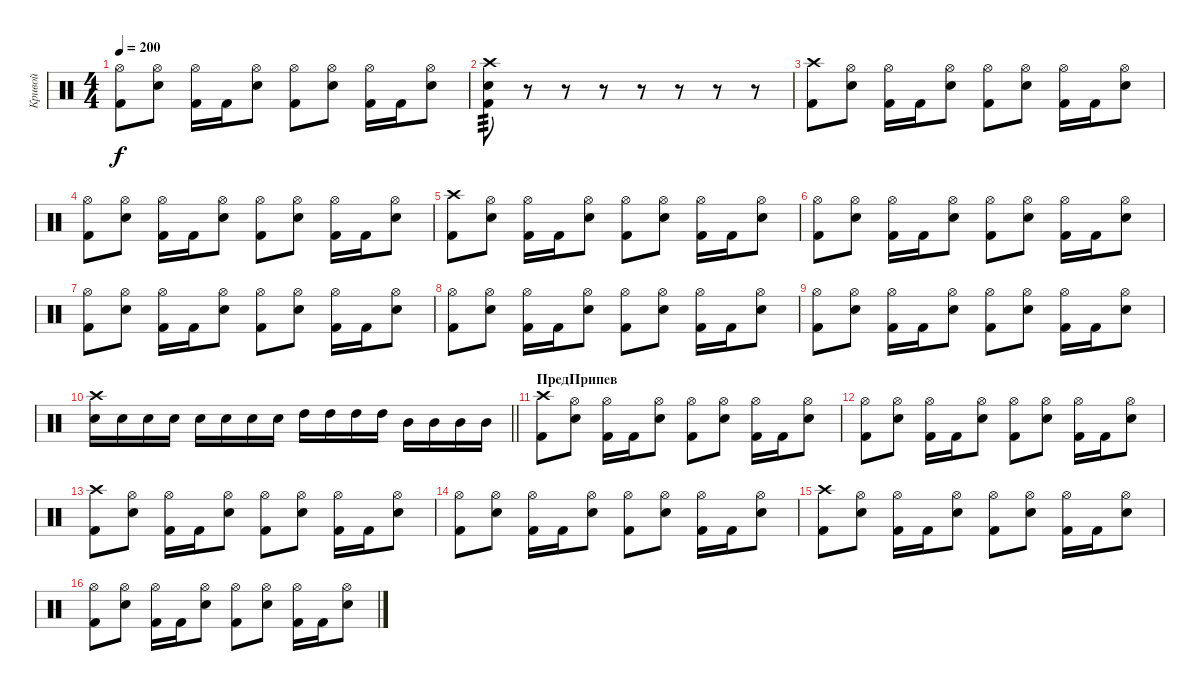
\track ("Кривой" "Кривой") {instrument percussion}
\staff {score}
\articulation defaults
\ts (4 4)
\tempo 200
\clef neutral
\ks c
("Kick (hit) 2" "Hi-Hat (open)").8{dy f} ("Electric Snare (hit)" "Hi-Hat (open)").8 ("Kick (hit) 2" "Hi-Hat (open)").16 "Kick (hit) 2".16 ("Electric Snare (hit)" "Hi-Hat (open)").8 ("Kick (hit) 2" "Hi-Hat (open)").8 ("Electric Snare (hit)" "Hi-Hat (open)").8 ("Kick (hit) 2" "Hi-Hat (open)").16 "Kick (hit) 2".16 ("Electric Snare (hit)" "Hi-Hat (open)").8 |
("Kick (hit) 2" "Electric Snare (hit)" "Crash high (hit)").8{tp 3} r.8 r.8 r.8 r.8 r.8 r.8 r.8 |
("Kick (hit) 2" "Crash high (hit)").8 ("Electric Snare (hit)" "Hi-Hat (open)").8 ("Kick (hit) 2" "Hi-Hat (open)").16 "Kick (hit) 2".16 ("Electric Snare (hit)" "Hi-Hat (open)").8 ("Kick (hit) 2" "Hi-Hat (open)").8 ("Electric Snare (hit)" "Hi-Hat (open)").8 ("Kick (hit) 2" "Hi-Hat (open)").16 "Kick (hit) 2".16 ("Electric Snare (hit)" "Hi-Hat (open)").8 |
("Kick (hit) 2" "Hi-Hat (open)").8 ("Electric Snare (hit)" "Hi-Hat (open)").8 ("Kick (hit) 2" "Hi-Hat (open)").16 "Kick (hit) 2".16 ("Electric Snare (hit)" "Hi-Hat (open)").8 ("Kick (hit) 2" "Hi-Hat (open)").8 ("Electric Snare (hit)" "Hi-Hat (open)").8 ("Kick (hit) 2" "Hi-Hat (open)").16 "Kick (hit) 2".16 ("Electric Snare (hit)" "Hi-Hat (open)").8 |
("Kick (hit) 2" "Crash high (hit)").8 ("Electric Snare (hit)" "Hi-Hat (open)").8 ("Kick (hit) 2" "Hi-Hat (open)").16 "Kick (hit) 2".16 ("Electric Snare (hit)" "Hi-Hat (open)").8 ("Kick (hit) 2" "Hi-Hat (open)").8 ("Electric Snare (hit)" "Hi-Hat (open)").8 ("Kick (hit) 2" "Hi-Hat (open)").16 "Kick (hit) 2".16 ("Electric Snare (hit)" "Hi-Hat (open)").8 |
("Kick (hit) 2" "Hi-Hat (open)").8 ("Electric Snare (hit)" "Hi-Hat (open)").8 ("Kick (hit) 2" "Hi-Hat (open)").16 "Kick (hit) 2".16 ("Electric Snare (hit)" "Hi-Hat (open)").8 ("Kick (hit) 2" "Hi-Hat (open)").8 ("Electric Snare (hit)" "Hi-Hat (open)").8 ("Kick (hit) 2" "Hi-Hat (open)").16 "Kick (hit) 2".16 ("Electric Snare (hit)" "Hi-Hat (open)").8 |
("Kick (hit) 2" "Hi-Hat (open)").8 ("Electric Snare (hit)" "Hi-Hat (open)").8 ("Kick (hit) 2" "Hi-Hat (open)").16 "Kick (hit) 2".16 ("Electric Snare (hit)" "Hi-Hat (open)").8 ("Kick (hit) 2" "Hi-Hat (open)").8 ("Electric Snare (hit)" "Hi-Hat (open)").8 ("Kick (hit) 2" "Hi-Hat (open)").16 "Kick (hit) 2".16 ("Electric Snare (hit)" "Hi-Hat (open)").8 |
("Kick (hit) 2" "Hi-Hat (open)").8 ("Electric Snare (hit)" "Hi-Hat (open)").8 ("Kick (hit) 2" "Hi-Hat (open)").16 "Kick (hit) 2".16 ("Electric Snare (hit)" "Hi-Hat (open)").8 ("Kick (hit) 2" "Hi-Hat (open)").8 ("Electric Snare (hit)" "Hi-Hat (open)").8 ("Kick (hit) 2" "Hi-Hat (open)").16 "Kick (hit) 2".16 ("Electric Snare (hit)" "Hi-Hat (open)").8 |
("Kick (hit) 2" "Hi-Hat (open)").8 ("Electric Snare (hit)" "Hi-Hat (open)").8 ("Kick (hit) 2" "Hi-Hat (open)").16 "Kick (hit) 2".16 ("Electric Snare (hit)" "Hi-Hat (open)").8 ("Kick (hit) 2" "Hi-Hat (open)").8 ("Electric Snare (hit)" "Hi-Hat (open)").8 ("Kick (hit) 2" "Hi-Hat (open)").16 "Kick (hit) 2".16 ("Electric Snare (hit)" "Hi-Hat (open)").8 |
\barLineRight lightlight
("Electric Snare (hit)" "Crash high (hit)").16 "Electric Snare (hit)".16 "Electric Snare (hit)".16 "Electric Snare (hit)".16 "Electric Snare (hit)".16 "Electric Snare (hit)".16 "Electric Snare (hit)".16 "Electric Snare (hit)".16 "High Tom (hit)".16 "High Tom (hit)".16 "High Tom (hit)".16 "High Tom (hit)".16 "Mid Tom (hit)".16 "Mid Tom (hit)".16 "Mid Tom (hit)".16 "Mid Tom (hit)".16 |
\section ("" "ПредПрипев")
("Kick (hit) 2" "Crash high (hit)").8 ("Electric Snare (hit)" "Hi-Hat (open)").8 ("Kick (hit) 2" "Hi-Hat (open)").16 "Kick (hit) 2".16 ("Electric Snare (hit)" "Hi-Hat (open)").8 ("Kick (hit) 2" "Hi-Hat (open)").8 ("Electric Snare (hit)" "Hi-Hat (open)").8 ("Kick (hit) 2" "Hi-Hat (open)").16 "Kick (hit) 2".16 ("Electric Snare (hit)" "Hi-Hat (open)").8 |
("Kick (hit) 2" "Hi-Hat (open)").8 ("Electric Snare (hit)" "Hi-Hat (open)").8 ("Kick (hit) 2" "Hi-Hat (open)").16 "Kick (hit) 2".16 ("Electric Snare (hit)" "Hi-Hat (open)").8 ("Kick (hit) 2" "Hi-Hat (open)").8 ("Electric Snare (hit)" "Hi-Hat (open)").8 ("Kick (hit) 2" "Hi-Hat (open)").16 "Kick (hit) 2".16 ("Electric Snare (hit)" "Hi-Hat (open)").8 |
("Kick (hit) 2" "Crash high (hit)").8 ("Electric Snare (hit)" "Hi-Hat (open)").8 ("Kick (hit) 2" "Hi-Hat (open)").16 "Kick (hit) 2".16 ("Electric Snare (hit)" "Hi-Hat (open)").8 ("Kick (hit) 2" "Hi-Hat (open)").8 ("Electric Snare (hit)" "Hi-Hat (open)").8 ("Kick (hit) 2" "Hi-Hat (open)").16 "Kick (hit) 2".16 ("Electric Snare (hit)" "Hi-Hat (open)").8 |
("Kick (hit) 2" "Hi-Hat (open)").8 ("Electric Snare (hit)" "Hi-Hat (open)").8 ("Kick (hit) 2" "Hi-Hat (open)").16 "Kick (hit) 2".16 ("Electric Snare (hit)" "Hi-Hat (open)").8 ("Kick (hit) 2" "Hi-Hat (open)").8 ("Electric Snare (hit)" "Hi-Hat (open)").8 ("Kick (hit) 2" "Hi-Hat (open)").16 "Kick (hit) 2".16 ("Electric Snare (hit)" "Hi-Hat (open)").8 |
("Kick (hit) 2" "Crash high (hit)").8 ("Electric Snare (hit)" "Hi-Hat (open)").8 ("Kick (hit) 2" "Hi-Hat (open)").16 "Kick (hit) 2".16 ("Electric Snare (hit)" "Hi-Hat (open)").8 ("Kick (hit) 2" "Hi-Hat (open)").8 ("Electric Snare (hit)" "Hi-Hat (open)").8 ("Kick (hit) 2" "Hi-Hat (open)").16 "Kick (hit) 2".16 ("Electric Snare (hit)" "Hi-Hat (open)").8 |
("Kick (hit) 2" "Hi-Hat (open)").8 ("Electric Snare (hit)" "Hi-Hat (open)").8 ("Kick (hit) 2" "Hi-Hat (open)").16 "Kick (hit) 2".16 ("Electric Snare (hit)" "Hi-Hat (open)").8 ("Kick (hit) 2" "Hi-Hat (open)").8 ("Electric Snare (hit)" "Hi-Hat (open)").8 ("Kick (hit) 2" "Hi-Hat (open)").16 "Kick (hit) 2".16 ("Electric Snare (hit)" "Hi-Hat (open)").8
